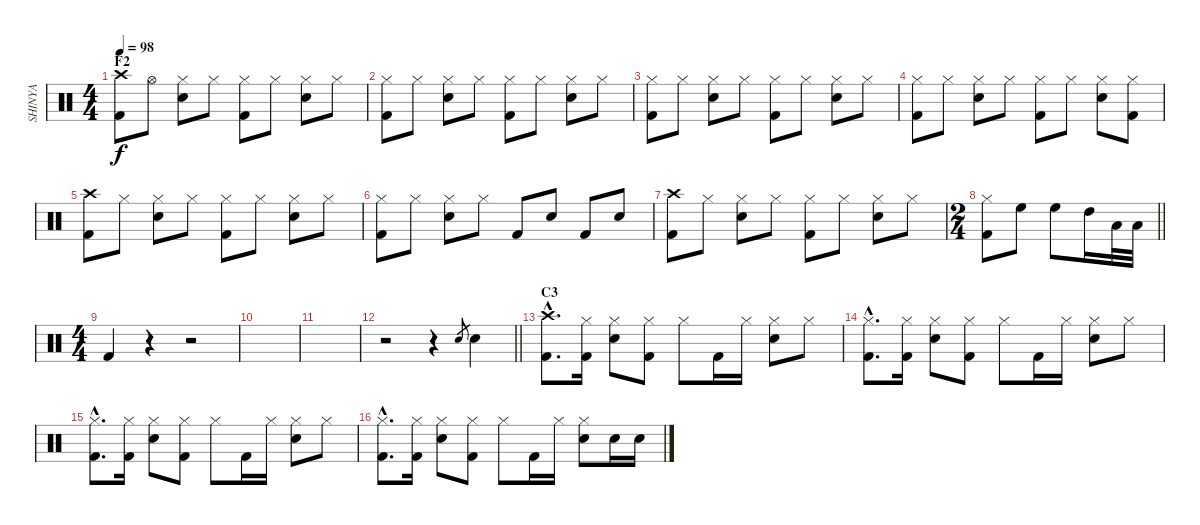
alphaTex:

\track ("SHINYA" "SHINYA") {instrument percussion}
\staff {score}
\articulation defaults
\ts (4 4)
\section ("" "F2")
\tempo 98
\clef neutral
\ks c
("Crash high (hit)" "Kick (hit) 2").8{dy f} "Hi-Hat (open)".8 ("Hi-Hat (closed)" "Snare (hit) 2").8 "Hi-Hat (closed)".8 ("Hi-Hat (closed)" "Kick (hit) 2").8 "Hi-Hat (closed)".8 ("Hi-Hat (closed)" "Snare (hit) 2").8 "Hi-Hat (closed)".8 |
("Hi-Hat (closed)" "Kick (hit) 2").8 "Hi-Hat (closed)".8 ("Hi-Hat (closed)" "Snare (hit) 2").8 "Hi-Hat (closed)".8 ("Hi-Hat (closed)" "Kick (hit) 2").8 "Hi-Hat (closed)".8 ("Hi-Hat (closed)" "Snare (hit) 2").8 "Hi-Hat (closed)".8 |
("Hi-Hat (closed)" "Kick (hit) 2").8 "Hi-Hat (closed)".8 ("Hi-Hat (closed)" "Snare (hit) 2").8 "Hi-Hat (closed)".8 ("Hi-Hat (closed)" "Kick (hit) 2").8 "Hi-Hat (closed)".8 ("Hi-Hat (closed)" "Snare (hit) 2").8 "Hi-Hat (closed)".8 |
("Hi-Hat (closed)" "Kick (hit) 2").8 "Hi-Hat (closed)".8 ("Hi-Hat (closed)" "Snare (hit) 2").8 "Hi-Hat (closed)".8 ("Hi-Hat (closed)" "Kick (hit) 2").8 "Hi-Hat (closed)".8 ("Hi-Hat (closed)" "Snare (hit) 2").8 ("Hi-Hat (closed)" "Kick (hit) 2").8 |
("Crash high (hit)" "Kick (hit) 2").8 "Hi-Hat (closed)".8 ("Hi-Hat (closed)" "Snare (hit) 2").8 "Hi-Hat (closed)".8 ("Hi-Hat (closed)" "Kick (hit) 2").8 "Hi-Hat (closed)".8 ("Hi-Hat (closed)" "Snare (hit) 2").8 "Hi-Hat (closed)".8 |
("Hi-Hat (closed)" "Kick (hit) 2").8 "Hi-Hat (closed)".8 ("Hi-Hat (closed)" "Snare (hit) 2").8 "Hi-Hat (closed)".8 "Kick (hit) 2".8 "Snare (hit) 2".8 "Kick (hit) 2".8 "Snare (hit) 2".8 |
("Crash high (hit)" "Kick (hit) 2").8 "Hi-Hat (closed)".8 ("Hi-Hat (closed)" "Snare (hit) 2").8 "Hi-Hat (closed)".8 ("Hi-Hat (closed)" "Kick (hit) 2").8 "Hi-Hat (closed)".8 ("Hi-Hat (closed)" "Snare (hit) 2").8 "Hi-Hat (closed)".8 |
\ts (2 4)
\barLineRight lightlight
("Hi-Hat (closed)" "Kick (hit) 2").8 "High Floor Tom (hit)".8 "High Floor Tom (hit)".8 "High Tom (hit)".16 "Low Tom (hit)".32 "Low Tom (hit)".32 |
\ts (4 4)
"Kick (hit) 2".4 r.4 r.2 |
|
|
\barLineRight lightlight
r.2 r.4 "Snare (hit) 2".8{gr} "Snare (hit) 2".4 |
\section ("" "C3")
("Crash high (hit)"{hac} "Kick (hit) 2"{hac}).8{d} ("Hi-Hat (closed)" "Kick (hit) 2").16 ("Hi-Hat (closed)" "Snare (hit) 2").8 ("Hi-Hat (closed)" "Kick (hit) 2").8 "Hi-Hat (closed)".8 "Kick (hit) 2".16 "Hi-Hat (closed)".16 ("Hi-Hat (closed)" "Snare (hit) 2").8 "Hi-Hat (closed)".8 |
("Hi-Hat (closed)"{hac} "Kick (hit) 2"{hac}).8{d} ("Hi-Hat (closed)" "Kick (hit) 2").16 ("Hi-Hat (closed)" "Snare (hit) 2").8 ("Hi-Hat (closed)" "Kick (hit) 2").8 "Hi-Hat (closed)".8 "Kick (hit) 2".16 "Hi-Hat (closed)".16 ("Hi-Hat (closed)" "Snare (hit) 2").8 "Hi-Hat (closed)".8 |
("Hi-Hat (closed)"{hac} "Kick (hit) 2"{hac}).8{d} ("Hi-Hat (closed)" "Kick (hit) 2").16 ("Hi-Hat (closed)" "Snare (hit) 2").8 ("Hi-Hat (closed)" "Kick (hit) 2").8 "Hi-Hat (closed)".8 "Kick (hit) 2".16 "Hi-Hat (closed)".16 ("Hi-Hat (closed)" "Snare (hit) 2").8 "Hi-Hat (closed)".8 |
("Hi-Hat (closed)"{hac} "Kick (hit) 2"{hac}).8{d} ("Hi-Hat (closed)" "Kick (hit) 2").16 ("Hi-Hat (closed)" "Snare (hit) 2").8 ("Hi-Hat (closed)" "Kick (hit) 2").8 "Hi-Hat (closed)".8 "Kick (hit) 2".16 "Hi-Hat (closed)".16 ("Hi-Hat (closed)" "Snare (hit) 2").8 "Snare (hit) 2".16 "Snare (hit) 2".16
